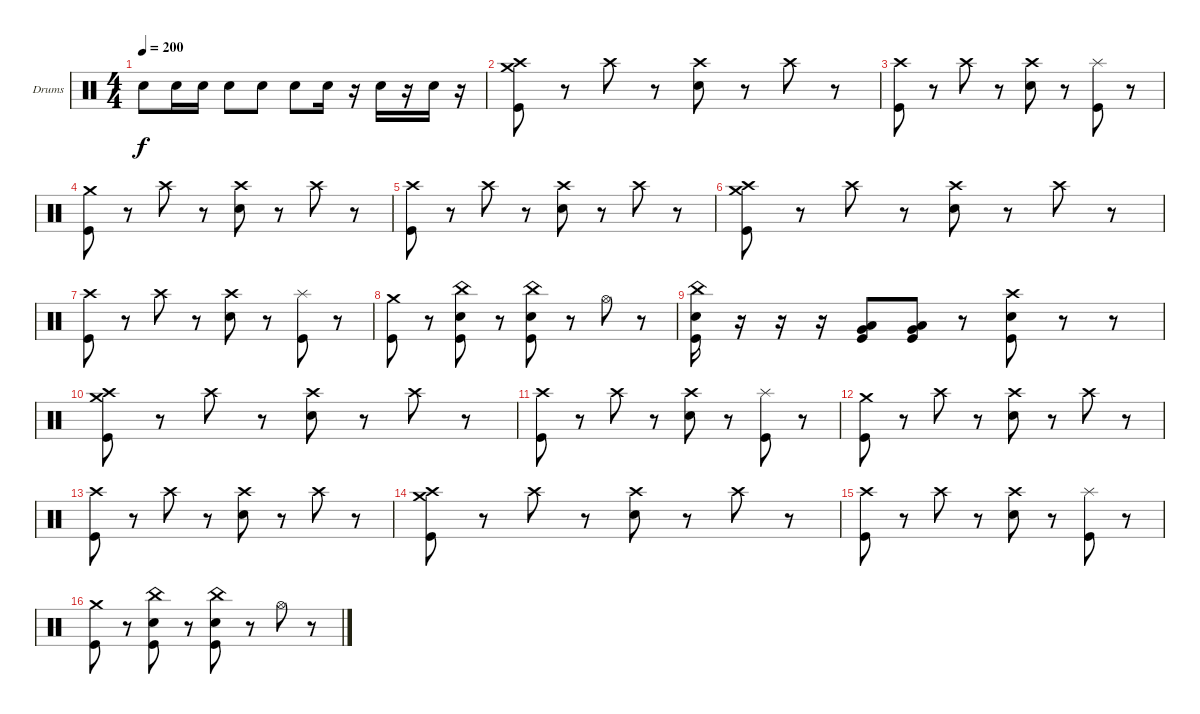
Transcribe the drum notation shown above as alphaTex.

\defaultSystemsLayout 4
\bracketExtendMode groupsimilarinstruments
\firstSystemTrackNameOrientation horizontal
\otherSystemsTrackNameOrientation horizontal
\track ("Drumkit" "Drums") {instrument percussion}
\staff {score}
\articulation defaults
\ts (4 4)
\tempo 200
\clef neutral
\ks c "Snare (hit) 2".8{dy f} "Snare (hit) 2".16 "Snare (hit) 2".16 "Snare (hit) 2".8 "Snare (hit) 2".8 "Snare (hit) 2".8 "Snare (hit) 2".16
r.16 "Snare (hit) 2".16 r.16 "Snare (hit) 2".16 r.16 |
("Kick (hit)" "Crash medium (hit)" "Crash high (hit)").8 r.8 "Crash high (hit)".8 r.8 ("Snare (hit) 2" "Crash high (hit)").8 r.8 "Crash high (hit)".8 r.8 |
("Kick (hit)" "Crash high (hit)").8 r.8 "Crash high (hit)".8 r.8 ("Snare (hit) 2" "Crash high (hit)").8 r.8 ("Kick (hit)" "Splash (hit)").8 r.8 |
("Kick (hit)" "Crash medium (hit)").8 r.8 "Crash high (hit)".8 r.8 ("Snare (hit) 2" "Crash high (hit)").8 r.8 "Crash high (hit)".8 r.8 |
("Kick (hit)" "Crash high (hit)").8 r.8 "Crash high (hit)".8 r.8 ("Snare (hit) 2" "Crash high (hit)").8 r.8 "Crash high (hit)".8 r.8 |
("Kick (hit)" "Crash medium (hit)" "Crash high (hit)").8 r.8 "Crash high (hit)".8 r.8 ("Snare (hit) 2" "Crash high (hit)").8 r.8 "Crash high (hit)".8 r.8 |
("Kick (hit)" "Crash high (hit)").8 r.8 "Crash high (hit)".8 r.8 ("Snare (hit) 2" "Crash high (hit)").8 r.8 ("Kick (hit)" "Splash (hit)").8 r.8 |
("Kick (hit)" "Crash medium (hit)").8 r.8 ("Kick (hit)" "Snare (hit) 2" "China (hit)").8 r.8 ("Kick (hit)" "Snare (hit) 2" "China (hit)").8 r.8 "Hi-Hat (open)".8 r.8 |
("Kick (hit)" "Snare (hit) 2" "China (hit)").16 r.16 r.16 r.16 ("Kick (hit)" "Very Low Tom (hit)" "Low Tom (hit)").8 ("Kick (hit)" "Very Low Tom (hit)" "Low Tom (hit)").8 r.8 ("Kick (hit)" "Snare (hit) 2" "Crash high (hit)").8 r.8 r.8 |
("Kick (hit)" "Crash medium (hit)" "Crash high (hit)").8 r.8 "Crash high (hit)".8 r.8 ("Snare (hit) 2" "Crash high (hit)").8 r.8 "Crash high (hit)".8 r.8 |
("Kick (hit)" "Crash high (hit)").8 r.8 "Crash high (hit)".8 r.8 ("Snare (hit) 2" "Crash high (hit)").8 r.8 ("Kick (hit)" "Splash (hit)").8 r.8 |
("Kick (hit)" "Crash medium (hit)").8 r.8 "Crash high (hit)".8 r.8 ("Snare (hit) 2" "Crash high (hit)").8 r.8 "Crash high (hit)".8 r.8 |
("Kick (hit)" "Crash high (hit)").8 r.8 "Crash high (hit)".8 r.8 ("Snare (hit) 2" "Crash high (hit)").8 r.8 "Crash high (hit)".8 r.8 |
("Kick (hit)" "Crash medium (hit)" "Crash high (hit)").8 r.8 "Crash high (hit)".8 r.8 ("Snare (hit) 2" "Crash high (hit)").8 r.8 "Crash high (hit)".8 r.8 |
("Kick (hit)" "Crash high (hit)").8 r.8 "Crash high (hit)".8 r.8 ("Snare (hit) 2" "Crash high (hit)").8 r.8 ("Kick (hit)" "Splash (hit)").8 r.8 |
("Kick (hit)" "Crash medium (hit)").8 r.8 ("Kick (hit)" "Snare (hit) 2" "China (hit)").8 r.8 ("Kick (hit)" "Snare (hit) 2" "China (hit)").8 r.8 "Hi-Hat (open)".8 r.8
